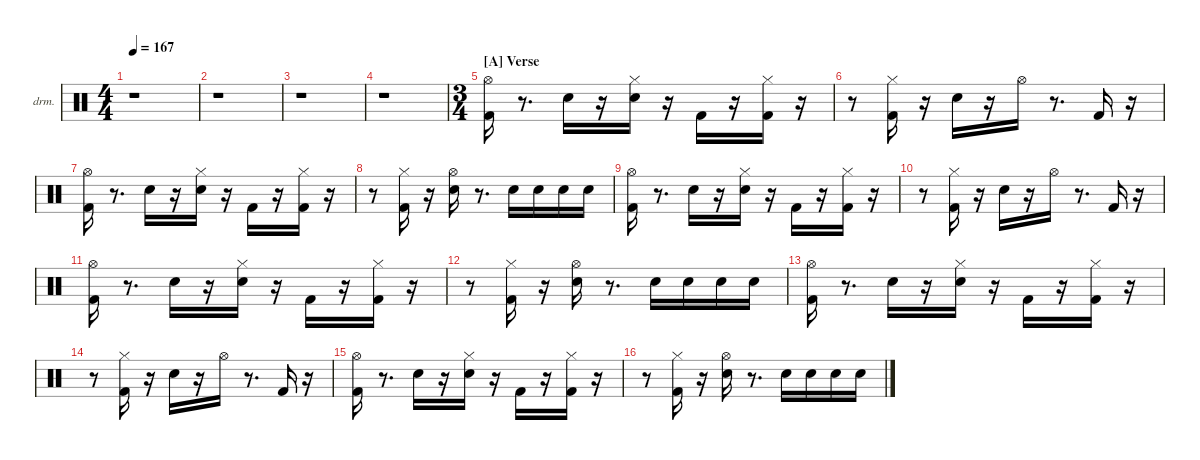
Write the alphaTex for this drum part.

\hideDynamics
\bracketExtendMode nobrackets
\firstSystemTrackNameOrientation horizontal
\otherSystemsTrackNameOrientation horizontal
\track ("Drums" "drm.") {instrument percussion}
\staff {score}
\articulation defaults
\ts (4 4)
\tempo 167
\clef neutral
\ks aminor
r.1{dy fff} |
r.1 |
r.1 |
r.1 |
\ts (3 4)
\section ("A" "Verse")
("Kick (hit) 2" "Hi-Hat (open)"{acc #}).16 r.8{d} "Snare (hit) 2".16{dy pp} r.16 ("Snare (hit) 2" "Hi-Hat (closed)"{acc #}).16{dy ppp} r.16 "Kick (hit) 2".16{dy mf} r.16 ("Kick (hit) 2" "Hi-Hat (closed)"{acc #}).16{dy ff} r.16 |
r.8 ("Kick (hit) 2" "Hi-Hat (closed)"{acc #}).16{dy fff} r.16 "Snare (hit) 2".16{dy ff} r.16 "Hi-Hat (open)"{acc #}.16{dy f} r.8{d} "Kick (hit) 2".16 r.16 |
("Kick (hit) 2" "Hi-Hat (open)"{acc #}).16{dy ff} r.8{d} "Snare (hit) 2".16{dy pp} r.16 ("Snare (hit) 2" "Hi-Hat (closed)"{acc #}).16{dy ppp} r.16 "Kick (hit) 2".16{dy mf} r.16 ("Kick (hit) 2" "Hi-Hat (closed)"{acc #}).16{dy ff} r.16 |
r.8 ("Kick (hit) 2" "Hi-Hat (closed)"{acc #}).16{dy fff} r.16 ("Snare (hit) 2" "Hi-Hat (open)"{acc #}).16 r.8{d} "Snare (hit) 2".16{dy p} "Snare (hit) 2".16{dy ppp} "Snare (hit) 2".16{dy p} "Snare (hit) 2".16{dy ppp} |
("Kick (hit) 2" "Hi-Hat (open)"{acc #}).16{dy ff} r.8{d} "Snare (hit) 2".16{dy pp} r.16 ("Snare (hit) 2" "Hi-Hat (closed)"{acc #}).16{dy ppp} r.16 "Kick (hit) 2".16{dy mf} r.16 ("Kick (hit) 2" "Hi-Hat (closed)"{acc #}).16{dy ff} r.16 |
r.8 ("Kick (hit) 2" "Hi-Hat (closed)"{acc #}).16{dy fff} r.16 "Snare (hit) 2".16{dy ff} r.16 "Hi-Hat (open)"{acc #}.16 r.8{d} "Kick (hit) 2".16{dy f} r.16 |
("Kick (hit) 2" "Hi-Hat (open)"{acc #}).16{dy ff} r.8{d} "Snare (hit) 2".16{dy pp} r.16 ("Snare (hit) 2" "Hi-Hat (closed)"{acc #}).16{dy ppp} r.16 "Kick (hit) 2".16{dy mf} r.16 ("Kick (hit) 2" "Hi-Hat (closed)"{acc #}).16{dy ff} r.16 |
r.8 ("Kick (hit) 2" "Hi-Hat (closed)"{acc #}).16{dy fff} r.16 ("Snare (hit) 2" "Hi-Hat (open)"{acc #}).16 r.8{d} "Snare (hit) 2".16{dy p} "Snare (hit) 2".16{dy ppp} "Snare (hit) 2".16{dy p} "Snare (hit) 2".16{dy ppp} |
("Kick (hit) 2" "Hi-Hat (open)"{acc #}).16{dy ff} r.8{d} "Snare (hit) 2".16{dy pp} r.16 ("Snare (hit) 2" "Hi-Hat (closed)"{acc #}).16{dy ppp} r.16 "Kick (hit) 2".16{dy mf} r.16 ("Kick (hit) 2" "Hi-Hat (closed)"{acc #}).16{dy ff} r.16 |
r.8 ("Kick (hit) 2" "Hi-Hat (closed)"{acc #}).16{dy fff} r.16 "Snare (hit) 2".16{dy ff} r.16 "Hi-Hat (open)"{acc #}.16 r.8{d} "Kick (hit) 2".16{dy f} r.16 |
("Kick (hit) 2" "Hi-Hat (open)"{acc #}).16{dy ff} r.8{d} "Snare (hit) 2".16{dy pp} r.16 ("Snare (hit) 2" "Hi-Hat (closed)"{acc #}).16{dy ppp} r.16 "Kick (hit) 2".16{dy mf} r.16 ("Kick (hit) 2" "Hi-Hat (closed)"{acc #}).16{dy ff} r.16 |
r.8 ("Kick (hit) 2" "Hi-Hat (closed)"{acc #}).16{dy fff} r.16 ("Snare (hit) 2" "Hi-Hat (open)"{acc #}).16 r.8{d} "Snare (hit) 2".16{dy p} "Snare (hit) 2".16{dy ppp} "Snare (hit) 2".16{dy p} "Snare (hit) 2".16{dy ppp}
